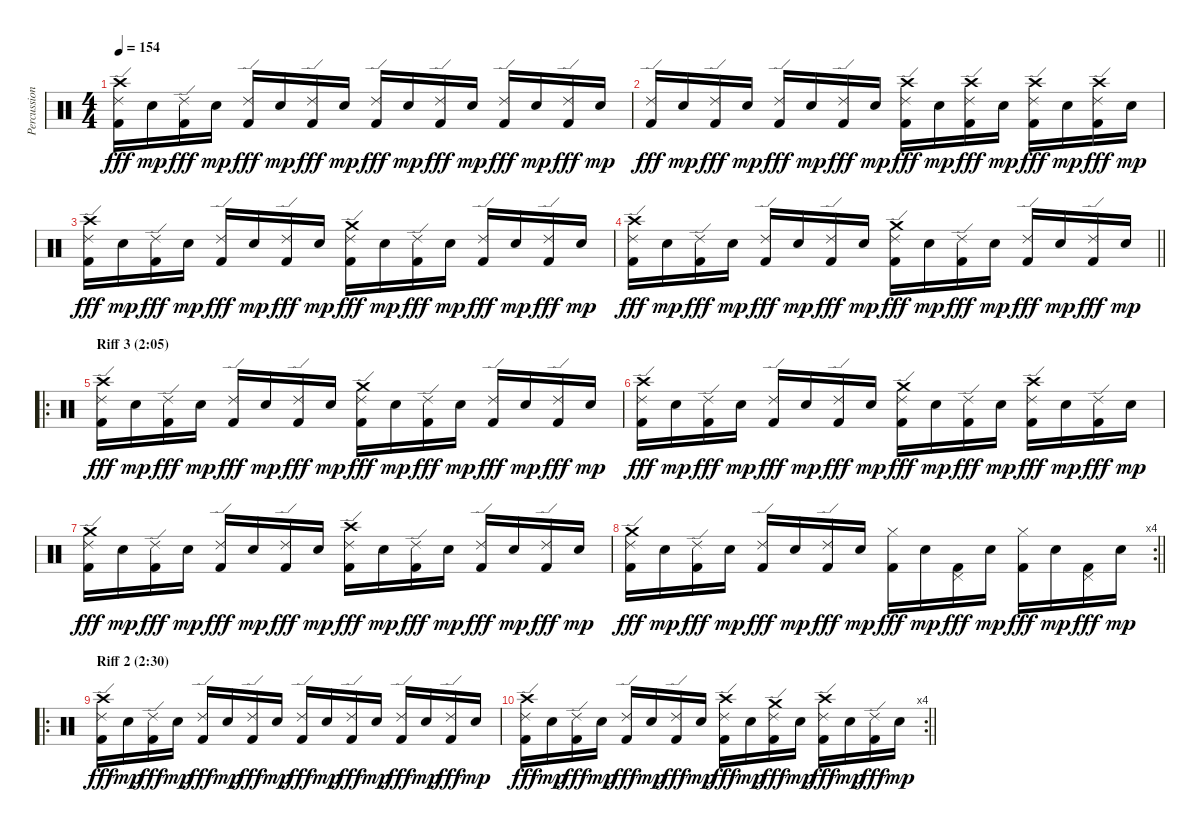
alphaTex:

\track ("Percussion" "Percussion") {instrument percussion}
\staff {score}
\articulation defaults
\ts (4 4)
\tempo 154
\clef neutral
\ks c
("Crash high (hit)" "Ride (edge) 2" "Kick (hit) 2").16{dy fff} "Electric Snare (hit)".16{dy mp} ("Ride (edge) 2" "Kick (hit) 2").16{dy fff} "Electric Snare (hit)".16{dy mp} ("Ride (edge) 2" "Kick (hit) 2").16{dy fff} "Electric Snare (hit)".16{dy mp} ("Ride (edge) 2" "Kick (hit) 2").16{dy fff} "Electric Snare (hit)".16{dy mp} ("Ride (edge) 2" "Kick (hit) 2").16{dy fff} "Electric Snare (hit)".16{dy mp} ("Ride (edge) 2" "Kick (hit) 2").16{dy fff} "Electric Snare (hit)".16{dy mp} ("Ride (edge) 2" "Kick (hit) 2").16{dy fff} "Electric Snare (hit)".16{dy mp} ("Ride (edge) 2" "Kick (hit) 2").16{dy fff} "Electric Snare (hit)".16{dy mp} |
("Ride (edge) 2" "Kick (hit) 2").16{dy fff} "Electric Snare (hit)".16{dy mp} ("Ride (edge) 2" "Kick (hit) 2").16{dy fff} "Electric Snare (hit)".16{dy mp} ("Ride (edge) 2" "Kick (hit) 2").16{dy fff} "Electric Snare (hit)".16{dy mp} ("Ride (edge) 2" "Kick (hit) 2").16{dy fff} "Electric Snare (hit)".16{dy mp} ("Crash high (hit)" "Ride (edge) 2" "Kick (hit) 2").16{dy fff} "Electric Snare (hit)".16{dy mp} ("Crash high (hit)" "Ride (edge) 2" "Kick (hit) 2").16{dy fff} "Electric Snare (hit)".16{dy mp} ("Crash high (hit)" "Ride (edge) 2" "Kick (hit) 2").16{dy fff} "Electric Snare (hit)".16{dy mp} ("Crash high (hit)" "Ride (edge) 2" "Kick (hit) 2").16{dy fff} "Electric Snare (hit)".16{dy mp} |
("Crash high (hit)" "Ride (edge) 2" "Kick (hit) 2").16{dy fff} "Electric Snare (hit)".16{dy mp} ("Ride (edge) 2" "Kick (hit) 2").16{dy fff} "Electric Snare (hit)".16{dy mp} ("Ride (edge) 2" "Kick (hit) 2").16{dy fff} "Electric Snare (hit)".16{dy mp} ("Ride (edge) 2" "Kick (hit) 2").16{dy fff} "Electric Snare (hit)".16{dy mp} ("Crash medium (hit)" "Ride (edge) 2" "Kick (hit) 2").16{dy fff} "Electric Snare (hit)".16{dy mp} ("Ride (edge) 2" "Kick (hit) 2").16{dy fff} "Electric Snare (hit)".16{dy mp} ("Ride (edge) 2" "Kick (hit) 2").16{dy fff} "Electric Snare (hit)".16{dy mp} ("Ride (edge) 2" "Kick (hit) 2").16{dy fff} "Electric Snare (hit)".16{dy mp} |
\barLineRight lightlight
("Crash high (hit)" "Ride (edge) 2" "Kick (hit) 2").16{dy fff} "Electric Snare (hit)".16{dy mp} ("Ride (edge) 2" "Kick (hit) 2").16{dy fff} "Electric Snare (hit)".16{dy mp} ("Ride (edge) 2" "Kick (hit) 2").16{dy fff} "Electric Snare (hit)".16{dy mp} ("Ride (edge) 2" "Kick (hit) 2").16{dy fff} "Electric Snare (hit)".16{dy mp} ("Crash medium (hit)" "Ride (edge) 2" "Kick (hit) 2").16{dy fff} "Electric Snare (hit)".16{dy mp} ("Ride (edge) 2" "Kick (hit) 2").16{dy fff} "Electric Snare (hit)".16{dy mp} ("Ride (edge) 2" "Kick (hit) 2").16{dy fff} "Electric Snare (hit)".16{dy mp} ("Ride (edge) 2" "Kick (hit) 2").16{dy fff} "Electric Snare (hit)".16{dy mp} |
\ro
\section ("" "Riff 3 (2:05)")
("Crash high (hit)" "Ride (edge) 2" "Kick (hit) 2").16{dy fff} "Electric Snare (hit)".16{dy mp} ("Ride (edge) 2" "Kick (hit) 2").16{dy fff} "Electric Snare (hit)".16{dy mp} ("Ride (edge) 2" "Kick (hit) 2").16{dy fff} "Electric Snare (hit)".16{dy mp} ("Ride (edge) 2" "Kick (hit) 2").16{dy fff} "Electric Snare (hit)".16{dy mp} ("Crash medium (hit)" "Ride (edge) 2" "Kick (hit) 2").16{dy fff} "Electric Snare (hit)".16{dy mp} ("Ride (edge) 2" "Kick (hit) 2").16{dy fff} "Electric Snare (hit)".16{dy mp} ("Ride (edge) 2" "Kick (hit) 2").16{dy fff} "Electric Snare (hit)".16{dy mp} ("Ride (edge) 2" "Kick (hit) 2").16{dy fff} "Electric Snare (hit)".16{dy mp} |
("Crash high (hit)" "Ride (edge) 2" "Kick (hit) 2").16{dy fff} "Electric Snare (hit)".16{dy mp} ("Ride (edge) 2" "Kick (hit) 2").16{dy fff} "Electric Snare (hit)".16{dy mp} ("Ride (edge) 2" "Kick (hit) 2").16{dy fff} "Electric Snare (hit)".16{dy mp} ("Ride (edge) 2" "Kick (hit) 2").16{dy fff} "Electric Snare (hit)".16{dy mp} ("Crash medium (hit)" "Ride (edge) 2" "Kick (hit) 2").16{dy fff} "Electric Snare (hit)".16{dy mp} ("Ride (edge) 2" "Kick (hit) 2").16{dy fff} "Electric Snare (hit)".16{dy mp} ("Crash high (hit)" "Ride (edge) 2" "Kick (hit) 2").16{dy fff} "Electric Snare (hit)".16{dy mp} ("Ride (edge) 2" "Kick (hit) 2").16{dy fff} "Electric Snare (hit)".16{dy mp} |
("Crash medium (hit)" "Ride (edge) 2" "Kick (hit) 2").16{dy fff} "Electric Snare (hit)".16{dy mp} ("Ride (edge) 2" "Kick (hit) 2").16{dy fff} "Electric Snare (hit)".16{dy mp} ("Ride (edge) 2" "Kick (hit) 2").16{dy fff} "Electric Snare (hit)".16{dy mp} ("Ride (edge) 2" "Kick (hit) 2").16{dy fff} "Electric Snare (hit)".16{dy mp} ("Crash high (hit)" "Ride (edge) 2" "Kick (hit) 2").16{dy fff} "Electric Snare (hit)".16{dy mp} ("Ride (edge) 2" "Kick (hit) 2").16{dy fff} "Electric Snare (hit)".16{dy mp} ("Ride (edge) 2" "Kick (hit) 2").16{dy fff} "Electric Snare (hit)".16{dy mp} ("Ride (edge) 2" "Kick (hit) 2").16{dy fff} "Electric Snare (hit)".16{dy mp} |
\rc 4
\barLineRight lightlight
("Crash medium (hit)" "Ride (edge) 2" "Kick (hit) 2").16{dy fff} "Electric Snare (hit)".16{dy mp} ("Ride (edge) 2" "Kick (hit) 2").16{dy fff} "Electric Snare (hit)".16{dy mp} ("Ride (edge) 2" "Kick (hit) 2").16{dy fff} "Electric Snare (hit)".16{dy mp} ("Ride (edge) 2" "Kick (hit) 2").16{dy fff} "Electric Snare (hit)".16{dy mp} ("Hi-Hat (closed)" "Kick (hit) 2").16{dy fff} "Electric Snare (hit)".16{dy mp} ("Pedal Hi-Hat (hit)" "Kick (hit) 2").16{dy fff} "Electric Snare (hit)".16{dy mp} ("Hi-Hat (closed)" "Kick (hit) 2").16{dy fff} "Electric Snare (hit)".16{dy mp} ("Pedal Hi-Hat (hit)" "Kick (hit) 2").16{dy fff} "Electric Snare (hit)".16{dy mp} |
\ro
\section ("" "Riff 2 (2:30)")
("Crash high (hit)" "Ride (edge) 2" "Kick (hit) 2").16{dy fff} "Electric Snare (hit)".16{dy mp} ("Ride (edge) 2" "Kick (hit) 2").16{dy fff} "Electric Snare (hit)".16{dy mp} ("Ride (edge) 2" "Kick (hit) 2").16{dy fff} "Electric Snare (hit)".16{dy mp} ("Ride (edge) 2" "Kick (hit) 2").16{dy fff} "Electric Snare (hit)".16{dy mp} ("Ride (edge) 2" "Kick (hit) 2").16{dy fff} "Electric Snare (hit)".16{dy mp} ("Ride (edge) 2" "Kick (hit) 2").16{dy fff} "Electric Snare (hit)".16{dy mp} ("Ride (edge) 2" "Kick (hit) 2").16{dy fff} "Electric Snare (hit)".16{dy mp} ("Ride (edge) 2" "Kick (hit) 2").16{dy fff} "Electric Snare (hit)".16{dy mp} |
\rc 4
\barLineRight lightlight
("Crash high (hit)" "Ride (edge) 2" "Kick (hit) 2").16{dy fff} "Electric Snare (hit)".16{dy mp} ("Ride (edge) 2" "Kick (hit) 2").16{dy fff} "Electric Snare (hit)".16{dy mp} ("Ride (edge) 2" "Kick (hit) 2").16{dy fff} "Electric Snare (hit)".16{dy mp} ("Ride (edge) 2" "Kick (hit) 2").16{dy fff} "Electric Snare (hit)".16{dy mp} ("Crash high (hit)" "Ride (edge) 2" "Kick (hit) 2").16{dy fff} "Electric Snare (hit)".16{dy mp} ("Crash medium (hit)" "Ride (edge) 2" "Kick (hit) 2").16{dy fff} "Electric Snare (hit)".16{dy mp} ("Crash high (hit)" "Ride (edge) 2" "Kick (hit) 2").16{dy fff} "Electric Snare (hit)".16{dy mp} ("Ride (edge) 2" "Kick (hit) 2").16{dy fff} "Electric Snare (hit)".16{dy mp}
